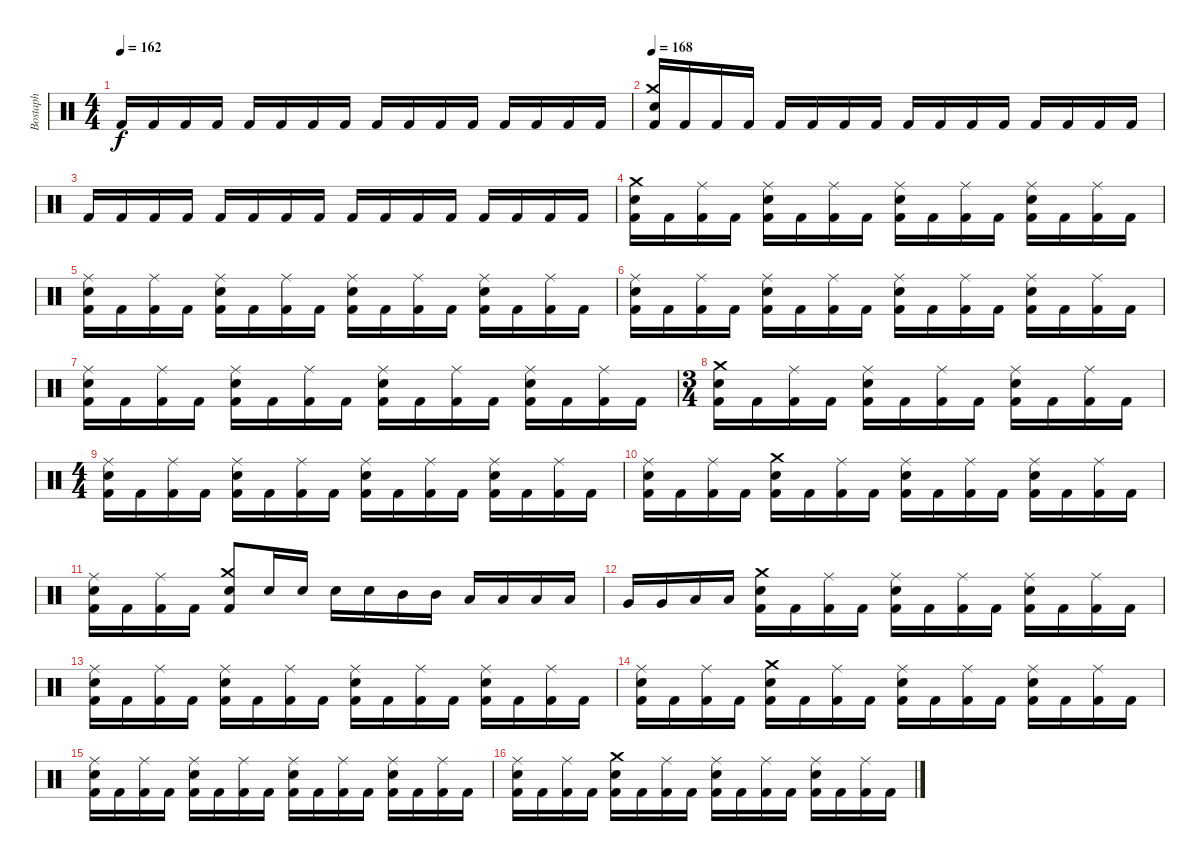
\track ("Bostaph" "Bostaph") {instrument percussion}
\staff {score}
\articulation defaults
\ts (4 4)
\tempo 162
\clef neutral
\ks c "Kick (hit) 2".16{dy f} "Kick (hit) 2".16 "Kick (hit) 2".16 "Kick (hit) 2".16 "Kick (hit) 2".16 "Kick (hit) 2".16 "Kick (hit) 2".16 "Kick (hit) 2".16 "Kick (hit) 2".16 "Kick (hit) 2".16 "Kick (hit) 2".16 "Kick (hit) 2".16 "Kick (hit) 2".16 "Kick (hit) 2".16 "Kick (hit) 2".16 "Kick (hit) 2".16
|
\tempo 168
("Crash medium (hit)" "Electric Snare (hit)" "Kick (hit) 2").16 "Kick (hit) 2".16 "Kick (hit) 2".16 "Kick (hit) 2".16 "Kick (hit) 2".16 "Kick (hit) 2".16 "Kick (hit) 2".16 "Kick (hit) 2".16 "Kick (hit) 2".16 "Kick (hit) 2".16 "Kick (hit) 2".16 "Kick (hit) 2".16 "Kick (hit) 2".16 "Kick (hit) 2".16 "Kick (hit) 2".16 "Kick (hit) 2".16 |
"Kick (hit) 2".16 "Kick (hit) 2".16 "Kick (hit) 2".16 "Kick (hit) 2".16 "Kick (hit) 2".16 "Kick (hit) 2".16 "Kick (hit) 2".16 "Kick (hit) 2".16 "Kick (hit) 2".16 "Kick (hit) 2".16 "Kick (hit) 2".16 "Kick (hit) 2".16 "Kick (hit) 2".16 "Kick (hit) 2".16 "Kick (hit) 2".16 "Kick (hit) 2".16 |
("Crash medium (hit)" "Electric Snare (hit)" "Kick (hit) 2").16 "Kick (hit) 2".16 ("Ride (middle)" "Kick (hit) 2").16 "Kick (hit) 2".16 ("Electric Snare (hit)" "Ride (middle)" "Kick (hit) 2").16 "Kick (hit) 2".16 ("Ride (middle)" "Kick (hit) 2").16 "Kick (hit) 2".16 ("Electric Snare (hit)" "Ride (middle)" "Kick (hit) 2").16 "Kick (hit) 2".16 ("Ride (middle)" "Kick (hit) 2").16 "Kick (hit) 2".16 ("Electric Snare (hit)" "Ride (middle)" "Kick (hit) 2").16 "Kick (hit) 2".16 ("Ride (middle)" "Kick (hit) 2").16 "Kick (hit) 2".16 |
("Electric Snare (hit)" "Ride (middle)" "Kick (hit) 2").16 "Kick (hit) 2".16 ("Ride (middle)" "Kick (hit) 2").16 "Kick (hit) 2".16 ("Electric Snare (hit)" "Ride (middle)" "Kick (hit) 2").16 "Kick (hit) 2".16 ("Ride (middle)" "Kick (hit) 2").16 "Kick (hit) 2".16 ("Electric Snare (hit)" "Ride (middle)" "Kick (hit) 2").16 "Kick (hit) 2".16 ("Ride (middle)" "Kick (hit) 2").16 "Kick (hit) 2".16 ("Electric Snare (hit)" "Ride (middle)" "Kick (hit) 2").16 "Kick (hit) 2".16 ("Ride (middle)" "Kick (hit) 2").16 "Kick (hit) 2".16 |
("Electric Snare (hit)" "Ride (middle)" "Kick (hit) 2").16 "Kick (hit) 2".16 ("Ride (middle)" "Kick (hit) 2").16 "Kick (hit) 2".16 ("Electric Snare (hit)" "Ride (middle)" "Kick (hit) 2").16 "Kick (hit) 2".16 ("Ride (middle)" "Kick (hit) 2").16 "Kick (hit) 2".16 ("Electric Snare (hit)" "Ride (middle)" "Kick (hit) 2").16 "Kick (hit) 2".16 ("Ride (middle)" "Kick (hit) 2").16 "Kick (hit) 2".16 ("Electric Snare (hit)" "Ride (middle)" "Kick (hit) 2").16 "Kick (hit) 2".16 ("Ride (middle)" "Kick (hit) 2").16 "Kick (hit) 2".16 |
("Ride (middle)" "Electric Snare (hit)" "Kick (hit) 2").16 "Kick (hit) 2".16 ("Ride (middle)" "Kick (hit) 2").16 "Kick (hit) 2".16 ("Electric Snare (hit)" "Ride (middle)" "Kick (hit) 2").16 "Kick (hit) 2".16 ("Ride (middle)" "Kick (hit) 2").16 "Kick (hit) 2".16 ("Electric Snare (hit)" "Ride (middle)" "Kick (hit) 2").16 "Kick (hit) 2".16 ("Ride (middle)" "Kick (hit) 2").16 "Kick (hit) 2".16 ("Electric Snare (hit)" "Ride (middle)" "Kick (hit) 2").16 "Kick (hit) 2".16 ("Ride (middle)" "Kick (hit) 2").16 "Kick (hit) 2".16 |
\ts (3 4)
("Crash medium (hit)" "Electric Snare (hit)" "Kick (hit) 2").16 "Kick (hit) 2".16 ("Ride (middle)" "Kick (hit) 2").16 "Kick (hit) 2".16 ("Electric Snare (hit)" "Ride (middle)" "Kick (hit) 2").16 "Kick (hit) 2".16 ("Ride (middle)" "Kick (hit) 2").16 "Kick (hit) 2".16 ("Electric Snare (hit)" "Ride (middle)" "Kick (hit) 2").16 "Kick (hit) 2".16 ("Ride (middle)" "Kick (hit) 2").16 "Kick (hit) 2".16 |
\ts (4 4)
("Ride (middle)" "Electric Snare (hit)" "Kick (hit) 2").16 "Kick (hit) 2".16 ("Ride (middle)" "Kick (hit) 2").16 "Kick (hit) 2".16 ("Electric Snare (hit)" "Ride (middle)" "Kick (hit) 2").16 "Kick (hit) 2".16 ("Ride (middle)" "Kick (hit) 2").16 "Kick (hit) 2".16 ("Electric Snare (hit)" "Ride (middle)" "Kick (hit) 2").16 "Kick (hit) 2".16 ("Ride (middle)" "Kick (hit) 2").16 "Kick (hit) 2".16 ("Electric Snare (hit)" "Ride (middle)" "Kick (hit) 2").16 "Kick (hit) 2".16 ("Ride (middle)" "Kick (hit) 2").16 "Kick (hit) 2".16 |
("Ride (middle)" "Electric Snare (hit)" "Kick (hit) 2").16 "Kick (hit) 2".16 ("Ride (middle)" "Kick (hit) 2").16 "Kick (hit) 2".16 ("Electric Snare (hit)" "Crash medium (hit)" "Kick (hit) 2").16 "Kick (hit) 2".16 ("Ride (middle)" "Kick (hit) 2").16 "Kick (hit) 2".16 ("Electric Snare (hit)" "Ride (middle)" "Kick (hit) 2").16 "Kick (hit) 2".16 ("Ride (middle)" "Kick (hit) 2").16 "Kick (hit) 2".16 ("Electric Snare (hit)" "Ride (middle)" "Kick (hit) 2").16 "Kick (hit) 2".16 ("Ride (middle)" "Kick (hit) 2").16 "Kick (hit) 2".16 |
("Ride (middle)" "Electric Snare (hit)" "Kick (hit) 2").16 "Kick (hit) 2".16 ("Ride (middle)" "Kick (hit) 2").16 "Kick (hit) 2".16 ("Electric Snare (hit)" "Crash medium (hit)" "Kick (hit) 2").8 "Electric Snare (hit)".16 "Electric Snare (hit)".16 "Electric Snare (hit)".16 "Electric Snare (hit)".16 "Mid Tom (hit)".16 "Mid Tom (hit)".16 "Low Tom (hit)".16 "Low Tom (hit)".16 "Low Tom (hit)".16 "Low Tom (hit)".16 |
"Very Low Tom (hit)".16 "Very Low Tom (hit)".16 "Low Floor Tom (hit)".16 "Low Floor Tom (hit)".16 ("Electric Snare (hit)" "Crash medium (hit)" "Kick (hit) 2").16 "Kick (hit) 2".16 ("Ride (middle)" "Kick (hit) 2").16 "Kick (hit) 2".16 ("Electric Snare (hit)" "Ride (middle)" "Kick (hit) 2").16 "Kick (hit) 2".16 ("Ride (middle)" "Kick (hit) 2").16 "Kick (hit) 2".16 ("Electric Snare (hit)" "Ride (middle)" "Kick (hit) 2").16 "Kick (hit) 2".16 ("Ride (middle)" "Kick (hit) 2").16 "Kick (hit) 2".16 |
("Ride (middle)" "Electric Snare (hit)" "Kick (hit) 2").16 "Kick (hit) 2".16 ("Ride (middle)" "Kick (hit) 2").16 "Kick (hit) 2".16 ("Electric Snare (hit)" "Ride (middle)" "Kick (hit) 2").16 "Kick (hit) 2".16 ("Ride (middle)" "Kick (hit) 2").16 "Kick (hit) 2".16 ("Electric Snare (hit)" "Ride (middle)" "Kick (hit) 2").16 "Kick (hit) 2".16 ("Ride (middle)" "Kick (hit) 2").16 "Kick (hit) 2".16 ("Electric Snare (hit)" "Ride (middle)" "Kick (hit) 2").16 "Kick (hit) 2".16 ("Ride (middle)" "Kick (hit) 2").16 "Kick (hit) 2".16 |
("Ride (middle)" "Electric Snare (hit)" "Kick (hit) 2").16 "Kick (hit) 2".16 ("Ride (middle)" "Kick (hit) 2").16 "Kick (hit) 2".16 ("Crash medium (hit)" "Electric Snare (hit)" "Kick (hit) 2").16 "Kick (hit) 2".16 ("Ride (middle)" "Kick (hit) 2").16 "Kick (hit) 2".16 ("Electric Snare (hit)" "Ride (middle)" "Kick (hit) 2").16 "Kick (hit) 2".16 ("Ride (middle)" "Kick (hit) 2").16 "Kick (hit) 2".16 ("Electric Snare (hit)" "Ride (middle)" "Kick (hit) 2").16 "Kick (hit) 2".16 ("Ride (middle)" "Kick (hit) 2").16 "Kick (hit) 2".16 |
("Ride (middle)" "Electric Snare (hit)" "Kick (hit) 2").16 "Kick (hit) 2".16 ("Ride (middle)" "Kick (hit) 2").16 "Kick (hit) 2".16 ("Electric Snare (hit)" "Ride (middle)" "Kick (hit) 2").16 "Kick (hit) 2".16 ("Ride (middle)" "Kick (hit) 2").16 "Kick (hit) 2".16 ("Electric Snare (hit)" "Ride (middle)" "Kick (hit) 2").16 "Kick (hit) 2".16 ("Ride (middle)" "Kick (hit) 2").16 "Kick (hit) 2".16 ("Electric Snare (hit)" "Ride (middle)" "Kick (hit) 2").16 "Kick (hit) 2".16 ("Ride (middle)" "Kick (hit) 2").16 "Kick (hit) 2".16 |
("Ride (middle)" "Electric Snare (hit)" "Kick (hit) 2").16 "Kick (hit) 2".16 ("Ride (middle)" "Kick (hit) 2").16 "Kick (hit) 2".16 ("Crash medium (hit)" "Electric Snare (hit)" "Kick (hit) 2").16 "Kick (hit) 2".16 ("Ride (middle)" "Kick (hit) 2").16 "Kick (hit) 2".16 ("Electric Snare (hit)" "Ride (middle)" "Kick (hit) 2").16 "Kick (hit) 2".16 ("Ride (middle)" "Kick (hit) 2").16 "Kick (hit) 2".16 ("Electric Snare (hit)" "Ride (middle)" "Kick (hit) 2").16 "Kick (hit) 2".16 ("Ride (middle)" "Kick (hit) 2").16 "Kick (hit) 2".16
